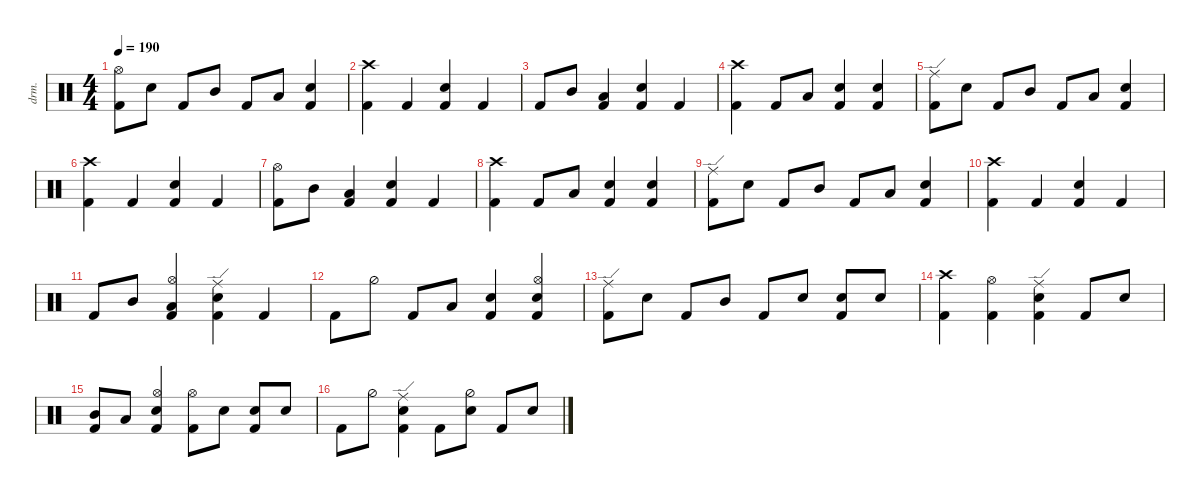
\defaultSystemsLayout 4
\hideDynamics
\bracketExtendMode nobrackets
\track ("Drumkit" "drm.") {instrument percussion}
\staff {score}
\articulation defaults
\ts (4 4)
\tempo 190
\clef neutral
\ks c
("Kick (hit) 2" "Hi-Hat (open)").8{dy mf} "Snare (hit) 2".8 "Kick (hit) 2".8 "Mid Tom (hit)".8 "Kick (hit) 2".8 "Low Tom (hit)".8 ("Kick (hit) 2" "Snare (hit) 2").4 |
("Kick (hit) 2" "Crash high (hit)").4 "Kick (hit) 2".4 ("Kick (hit) 2" "Snare (hit) 2").4 "Kick (hit) 2".4 |
"Kick (hit) 2".8 "Mid Tom (hit)".8 ("Kick (hit) 2" "Low Tom (hit)").4 ("Kick (hit) 2" "Snare (hit) 2").4 "Kick (hit) 2".4 |
("Kick (hit) 2" "Crash high (hit)").4 "Kick (hit) 2".8 "Low Tom (hit)".8 ("Kick (hit) 2" "Snare (hit) 2").4 ("Kick (hit) 2" "Snare (hit) 2").4 |
("Kick (hit) 2" "Ride (edge)").8 "Snare (hit) 2".8 "Kick (hit) 2".8 "Mid Tom (hit)".8 "Kick (hit) 2".8 "Low Tom (hit)".8 ("Kick (hit) 2" "Snare (hit) 2").4 |
("Kick (hit) 2" "Crash high (hit)").4 "Kick (hit) 2".4 ("Kick (hit) 2" "Snare (hit) 2").4 "Kick (hit) 2".4 |
("Kick (hit) 2" "Hi-Hat (open)").8 "Mid Tom (hit)".8 ("Kick (hit) 2" "Low Tom (hit)").4 ("Kick (hit) 2" "Snare (hit) 2").4 "Kick (hit) 2".4 |
("Kick (hit) 2" "Crash high (hit)").4 "Kick (hit) 2".8 "Low Tom (hit)".8 ("Kick (hit) 2" "Snare (hit) 2").4 ("Kick (hit) 2" "Snare (hit) 2").4 |
("Kick (hit) 2" "Ride (edge)").8 "Snare (hit) 2".8 "Kick (hit) 2".8 "Mid Tom (hit)".8 "Kick (hit) 2".8 "Low Tom (hit)".8 ("Kick (hit) 2" "Snare (hit) 2").4 |
("Kick (hit) 2" "Crash high (hit)").4 "Kick (hit) 2".4 ("Kick (hit) 2" "Snare (hit) 2").4 "Kick (hit) 2".4 |
"Kick (hit) 2".8 "Mid Tom (hit)".8 ("Kick (hit) 2" "Low Tom (hit)" "Hi-Hat (open)").4 ("Kick (hit) 2" "Snare (hit) 2" "Ride (edge)").4 "Kick (hit) 2".4 |
"Kick (hit) 2".8 "Hi-Hat (half)".8 "Kick (hit) 2".8 "Low Tom (hit)".8 ("Kick (hit) 2" "Snare (hit) 2").4 ("Kick (hit) 2" "Snare (hit) 2" "Hi-Hat (open)").4 |
("Kick (hit) 2" "Ride (edge)").8 "Snare (hit) 2".8 "Kick (hit) 2".8 "Mid Tom (hit)".8 "Kick (hit) 2".8 "Snare (hit) 2".8 ("Kick (hit) 2" "Snare (hit) 2").8 "Snare (hit) 2".8 |
("Kick (hit) 2" "Crash high (hit)").4 ("Kick (hit) 2" "Hi-Hat (open)").4 ("Kick (hit) 2" "Snare (hit) 2" "Ride (edge)").4 "Kick (hit) 2".8 "Snare (hit) 2".8 |
("Kick (hit) 2" "Mid Tom (hit)").8 "Low Tom (hit)".8 ("Kick (hit) 2" "Snare (hit) 2" "Hi-Hat (open)").4 ("Kick (hit) 2" "Hi-Hat (open)").8 "Snare (hit) 2".8 ("Kick (hit) 2" "Snare (hit) 2").8 "Snare (hit) 2".8 |
"Kick (hit) 2".8 "Hi-Hat (half)".8 ("Kick (hit) 2" "Snare (hit) 2" "Ride (edge)").4 "Kick (hit) 2".8 ("Snare (hit) 2" "Hi-Hat (half)").8 "Kick (hit) 2".8 "Snare (hit) 2".8
